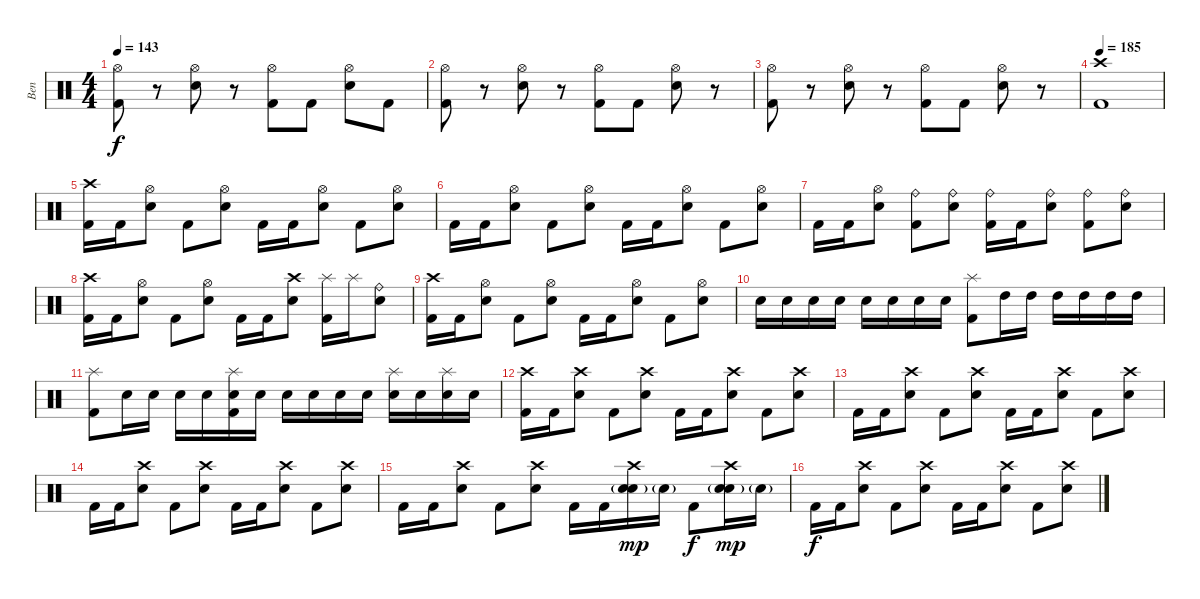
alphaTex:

\track ("Ben" "Ben") {instrument percussion}
\staff {score}
\articulation defaults
\ts (4 4)
\tempo 143
\clef neutral
\ks c
("Hi-Hat (open)" "Kick (hit) 2").8{dy f} r.8 ("Hi-Hat (open)" "Electric Snare (hit)").8 r.8 ("Hi-Hat (open)" "Kick (hit) 2").8 "Kick (hit) 2".8 ("Hi-Hat (open)" "Electric Snare (hit)").8 "Kick (hit) 2".8 |
("Hi-Hat (open)" "Kick (hit) 2").8 r.8 ("Hi-Hat (open)" "Electric Snare (hit)").8 r.8 ("Hi-Hat (open)" "Kick (hit) 2").8 "Kick (hit) 2".8 ("Hi-Hat (open)" "Electric Snare (hit)").8 r.8 |
("Hi-Hat (open)" "Kick (hit) 2").8 r.8 ("Hi-Hat (open)" "Electric Snare (hit)").8 r.8 ("Hi-Hat (open)" "Kick (hit) 2").8 "Kick (hit) 2".8 ("Hi-Hat (open)" "Electric Snare (hit)").8 r.8 |
\tempo 185
("Crash high (hit)" "Kick (hit) 2").1 |
("Crash high (hit)" "Kick (hit) 2").16 "Kick (hit) 2".16 ("Hi-Hat (open)" "Electric Snare (hit)").8 "Kick (hit) 2".8 ("Hi-Hat (open)" "Electric Snare (hit)").8 "Kick (hit) 2".16 "Kick (hit) 2".16 ("Hi-Hat (open)" "Electric Snare (hit)").8 "Kick (hit) 2".8 ("Hi-Hat (open)" "Electric Snare (hit)").8 |
"Kick (hit) 2".16 "Kick (hit) 2".16 ("Hi-Hat (open)" "Electric Snare (hit)").8 "Kick (hit) 2".8 ("Hi-Hat (open)" "Electric Snare (hit)").8 "Kick (hit) 2".16 "Kick (hit) 2".16 ("Hi-Hat (open)" "Electric Snare (hit)").8 "Kick (hit) 2".8 ("Hi-Hat (open)" "Electric Snare (hit)").8 |
"Kick (hit) 2".16 "Kick (hit) 2".16 ("Hi-Hat (open)" "Electric Snare (hit)").8 ("Ride (bell)" "Kick (hit) 2").8 ("Ride (bell)" "Electric Snare (hit)").8 ("Ride (bell)" "Kick (hit) 2").16 "Kick (hit) 2".16 ("Ride (bell)" "Electric Snare (hit)").8 ("Ride (bell)" "Kick (hit) 2").8 ("Ride (bell)" "Electric Snare (hit)").8 |
("Crash high (hit)" "Kick (hit) 2").16 "Kick (hit) 2".16 ("Hi-Hat (open)" "Electric Snare (hit)").8 "Kick (hit) 2".8 ("Hi-Hat (open)" "Electric Snare (hit)").8 "Kick (hit) 2".16 "Kick (hit) 2".16 ("Crash high (hit)" "Electric Snare (hit)").8 ("Splash (hit)" "Kick (hit) 2").16 "Splash (hit)".16 ("Ride (bell)" "Electric Snare (hit)").8 |
("Crash high (hit)" "Kick (hit) 2").16 "Kick (hit) 2".16 ("Hi-Hat (open)" "Electric Snare (hit)").8 "Kick (hit) 2".8 ("Hi-Hat (open)" "Electric Snare (hit)").8 "Kick (hit) 2".16 "Kick (hit) 2".16 ("Hi-Hat (open)" "Electric Snare (hit)").8 "Kick (hit) 2".8 ("Hi-Hat (open)" "Electric Snare (hit)").8 |
"Electric Snare (hit)".16 "Electric Snare (hit)".16 "Electric Snare (hit)".16 "Electric Snare (hit)".16 "Electric Snare (hit)".16 "Electric Snare (hit)".16 "Electric Snare (hit)".16 "Electric Snare (hit)".16 ("Splash (hit)" "Kick (hit) 2").8 "High Tom (hit)".16 "High Tom (hit)".16 "High Tom (hit)".16 "High Tom (hit)".16 "High Tom (hit)".16 "High Tom (hit)".16 |
("Splash (hit)" "Kick (hit) 2").8 "Electric Snare (hit)".16 "Electric Snare (hit)".16 "Electric Snare (hit)".16 "Electric Snare (hit)".16 ("Splash (hit)" "Electric Snare (hit)" "Kick (hit) 2").16 "Electric Snare (hit)".16 "Electric Snare (hit)".16 "Electric Snare (hit)".16 "Electric Snare (hit)".16 "Electric Snare (hit)".16 ("Splash (hit)" "Electric Snare (hit)").16 "Electric Snare (hit)".16 ("Splash (hit)" "Electric Snare (hit)").16 "Electric Snare (hit)".16 |
("Crash high (hit)" "Kick (hit) 2").16 "Kick (hit) 2".16 ("Crash high (hit)" "Electric Snare (hit)").8 "Kick (hit) 2".8 ("Crash high (hit)" "Electric Snare (hit)").8 "Kick (hit) 2".16 "Kick (hit) 2".16 ("Crash high (hit)" "Electric Snare (hit)").8 "Kick (hit) 2".8 ("Crash high (hit)" "Electric Snare (hit)").8 |
"Kick (hit) 2".16 "Kick (hit) 2".16 ("Crash high (hit)" "Electric Snare (hit)").8 "Kick (hit) 2".8 ("Crash high (hit)" "Electric Snare (hit)").8 "Kick (hit) 2".16 "Kick (hit) 2".16 ("Crash high (hit)" "Electric Snare (hit)").8 "Kick (hit) 2".8 ("Crash high (hit)" "Electric Snare (hit)").8 |
"Kick (hit) 2".16 "Kick (hit) 2".16 ("Crash high (hit)" "Electric Snare (hit)").8 "Kick (hit) 2".8 ("Crash high (hit)" "Electric Snare (hit)").8 "Kick (hit) 2".16 "Kick (hit) 2".16 ("Crash high (hit)" "Electric Snare (hit)").8 "Kick (hit) 2".8 ("Crash high (hit)" "Electric Snare (hit)").8 |
"Kick (hit) 2".16 "Kick (hit) 2".16 ("Crash high (hit)" "Electric Snare (hit)").8 "Kick (hit) 2".8 ("Crash high (hit)" "Electric Snare (hit)").8 "Kick (hit) 2".16 "Kick (hit) 2".16 ("Crash high (hit)" "Electric Snare (hit)"{g} "Electric Snare (hit)").16{dy mp} "Electric Snare (hit)"{g}.16 "Kick (hit) 2".8{dy f} ("Crash high (hit)" "Electric Snare (hit)"{g} "Electric Snare (hit)").16{dy mp} "Electric Snare (hit)"{g}.16 |
"Kick (hit) 2".16{dy f} "Kick (hit) 2".16 ("Crash high (hit)" "Electric Snare (hit)").8 "Kick (hit) 2".8 ("Crash high (hit)" "Electric Snare (hit)").8 "Kick (hit) 2".16 "Kick (hit) 2".16 ("Crash high (hit)" "Electric Snare (hit)").8 "Kick (hit) 2".8 ("Crash high (hit)" "Electric Snare (hit)").8
